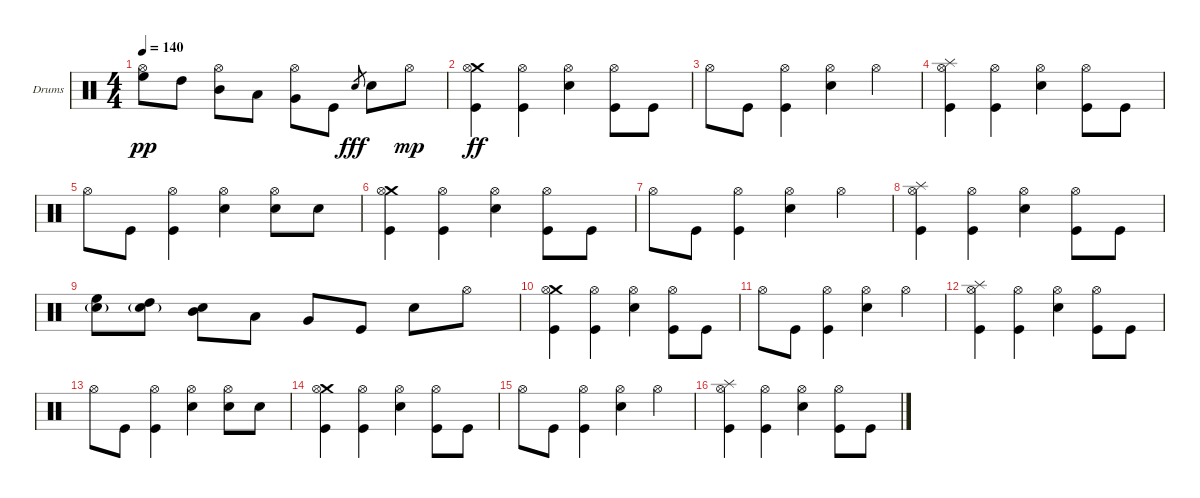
\defaultSystemsLayout 4
\bracketExtendMode groupsimilarinstruments
\firstSystemTrackNameOrientation horizontal
\otherSystemsTrackNameOrientation horizontal
\track ("Drumkit" "Drums") {instrument percussion}
\staff {score}
\articulation defaults
\ts (4 4)
\tempo 140
\clef neutral
\scale
0.333333
\ks c
("High Floor Tom (hit)" "Hi-Hat (open)").8{dy pp} "High Tom (hit)".8 ("Mid Tom (hit)" "Hi-Hat (open)").8 "Low Tom (hit)".8 ("Very Low Tom (hit)" "Hi-Hat (open)").8 "Kick (hit)".8 "Snare (hit) 2".8{gr dy fff} "Snare (hit) 2".8 "Hi-Hat (open)".8{dy mp} |
\scale
0.333333 ("Kick (hit)" "Crash medium (hit)" "Hi-Hat (open)").4{dy ff} ("Hi-Hat (open)" "Kick (hit)").4 ("Hi-Hat (open)" "Snare (hit) 2").4 ("Kick (hit)" "Hi-Hat (open)").8 "Kick (hit)".8 |
\scale
0.333333 "Hi-Hat (open)".8 "Kick (hit)".8 ("Kick (hit)" "Hi-Hat (open)").4 ("Snare (hit) 2" "Hi-Hat (open)").4 "Hi-Hat (open)".4 |
\scale
0.333333 ("Kick (hit)" "Hi-Hat (open)" "Splash (hit)").4 ("Hi-Hat (open)" "Kick (hit)").4 ("Hi-Hat (open)" "Snare (hit) 2").4 ("Kick (hit)" "Hi-Hat (open)").8 "Kick (hit)".8 |
\scale
0.333333 "Hi-Hat (open)".8 "Kick (hit)".8 ("Kick (hit)" "Hi-Hat (open)").4 ("Snare (hit) 2" "Hi-Hat (open)").4 ("Hi-Hat (open)" "Snare (hit) 2").8 "Snare (hit) 2".8 |
\scale
0.333333 ("Kick (hit)" "Crash medium (hit)" "Hi-Hat (open)").4 ("Hi-Hat (open)" "Kick (hit)").4 ("Hi-Hat (open)" "Snare (hit) 2").4 ("Kick (hit)" "Hi-Hat (open)").8 "Kick (hit)".8 |
\scale
0.333333 "Hi-Hat (open)".8 "Kick (hit)".8 ("Kick (hit)" "Hi-Hat (open)").4 ("Snare (hit) 2" "Hi-Hat (open)").4 "Hi-Hat (open)".4 |
\scale
0.333333 ("Kick (hit)" "Hi-Hat (open)" "Splash (hit)").4 ("Hi-Hat (open)" "Kick (hit)").4 ("Hi-Hat (open)" "Snare (hit) 2").4 ("Kick (hit)" "Hi-Hat (open)").8 "Kick (hit)".8 |
\scale
0.333333 ("High Floor Tom (hit)" "Snare (hit) 2"{g}).8 ("High Tom (hit)" "Snare (hit) 2"{g}).8 ("Mid Tom (hit)" "Snare (hit) 2").8 "Low Tom (hit)".8 "Very Low Tom (hit)".8 "Kick (hit)".8 "Snare (hit) 2".8 "Hi-Hat (open)".8 |
\scale
0.333333 ("Kick (hit)" "Crash medium (hit)" "Hi-Hat (open)").4 ("Hi-Hat (open)" "Kick (hit)").4 ("Hi-Hat (open)" "Snare (hit) 2").4 ("Kick (hit)" "Hi-Hat (open)").8 "Kick (hit)".8 |
\scale
0.333333 "Hi-Hat (open)".8 "Kick (hit)".8 ("Kick (hit)" "Hi-Hat (open)").4 ("Snare (hit) 2" "Hi-Hat (open)").4 "Hi-Hat (open)".4 |
\scale
0.333333 ("Kick (hit)" "Hi-Hat (open)" "Splash (hit)").4 ("Hi-Hat (open)" "Kick (hit)").4 ("Hi-Hat (open)" "Snare (hit) 2").4 ("Kick (hit)" "Hi-Hat (open)").8 "Kick (hit)".8 |
\scale
0.333333 "Hi-Hat (open)".8 "Kick (hit)".8 ("Kick (hit)" "Hi-Hat (open)").4 ("Snare (hit) 2" "Hi-Hat (open)").4 ("Hi-Hat (open)" "Snare (hit) 2").8 "Snare (hit) 2".8 |
\scale
0.333333 ("Kick (hit)" "Crash medium (hit)" "Hi-Hat (open)").4 ("Hi-Hat (open)" "Kick (hit)").4 ("Hi-Hat (open)" "Snare (hit) 2").4 ("Kick (hit)" "Hi-Hat (open)").8 "Kick (hit)".8 |
\scale
0.333333 "Hi-Hat (open)".8 "Kick (hit)".8 ("Kick (hit)" "Hi-Hat (open)").4 ("Snare (hit) 2" "Hi-Hat (open)").4 "Hi-Hat (open)".4 |
\scale
0.333333 ("Kick (hit)" "Hi-Hat (open)" "Splash (hit)").4 ("Hi-Hat (open)" "Kick (hit)").4 ("Hi-Hat (open)" "Snare (hit) 2").4 ("Kick (hit)" "Hi-Hat (open)").8 "Kick (hit)".8
